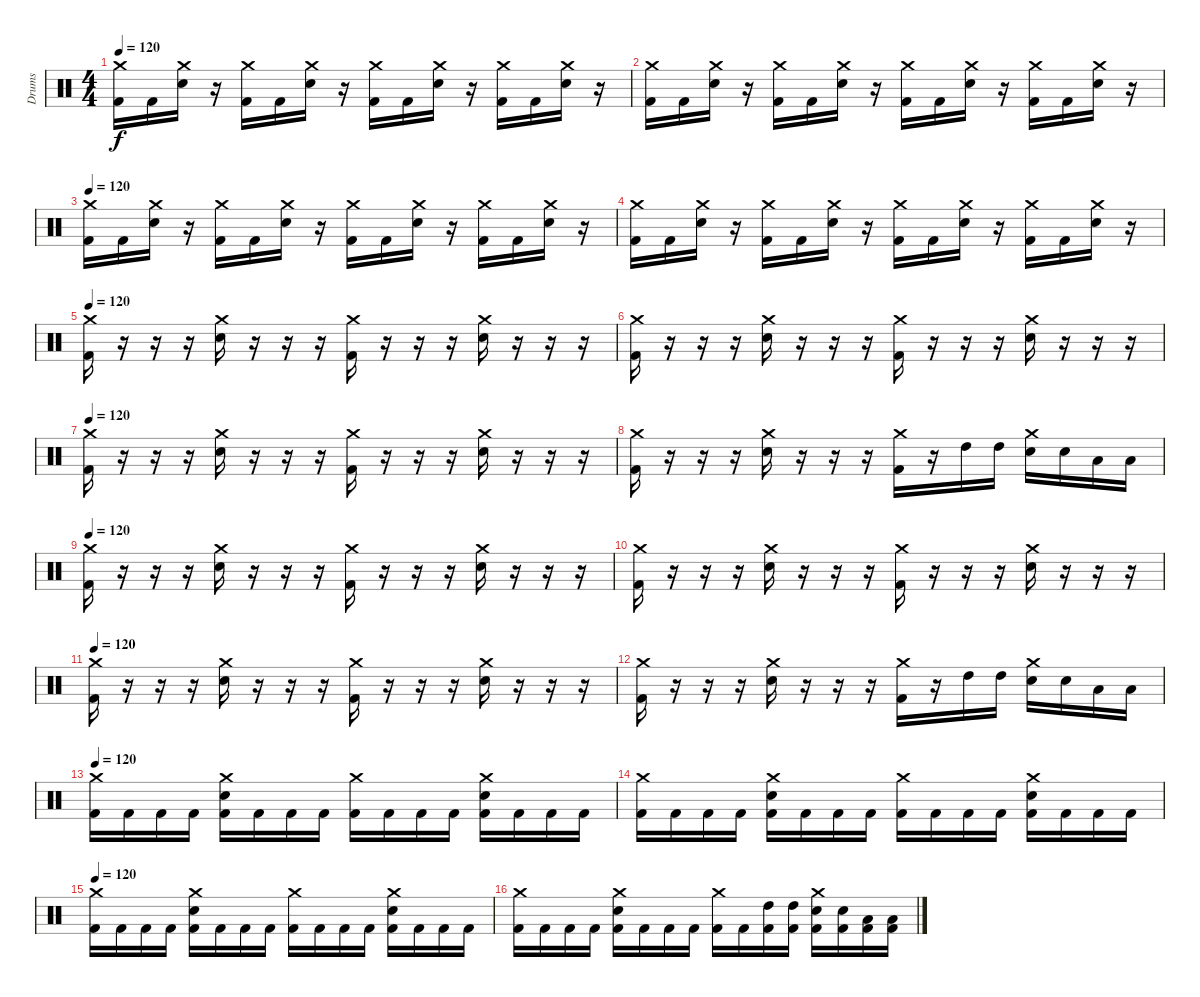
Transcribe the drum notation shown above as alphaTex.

\track ("Drums" "Drums") {instrument percussion}
\staff {score}
\articulation defaults
\ts (4 4)
\tempo 120
\clef neutral
\ks c
("Crash medium (hit)" "Kick (hit) 2").16{dy f} "Kick (hit) 2".16 ("Crash medium (hit)" "Electric Snare (hit)").16 r.16 ("Crash medium (hit)" "Kick (hit) 2").16 "Kick (hit) 2".16 ("Crash medium (hit)" "Electric Snare (hit)").16 r.16 ("Crash medium (hit)" "Kick (hit) 2").16 "Kick (hit) 2".16 ("Crash medium (hit)" "Electric Snare (hit)").16 r.16 ("Crash medium (hit)" "Kick (hit) 2").16 "Kick (hit) 2".16 ("Crash medium (hit)" "Electric Snare (hit)").16 r.16 |
("Crash medium (hit)" "Kick (hit) 2").16 "Kick (hit) 2".16 ("Crash medium (hit)" "Electric Snare (hit)").16 r.16 ("Crash medium (hit)" "Kick (hit) 2").16 "Kick (hit) 2".16 ("Crash medium (hit)" "Electric Snare (hit)").16 r.16 ("Crash medium (hit)" "Kick (hit) 2").16 "Kick (hit) 2".16 ("Crash medium (hit)" "Electric Snare (hit)").16 r.16 ("Crash medium (hit)" "Kick (hit) 2").16 "Kick (hit) 2".16 ("Crash medium (hit)" "Electric Snare (hit)").16 r.16 |
\tempo 120
("Crash medium (hit)" "Kick (hit) 2").16 "Kick (hit) 2".16 ("Crash medium (hit)" "Electric Snare (hit)").16 r.16 ("Crash medium (hit)" "Kick (hit) 2").16 "Kick (hit) 2".16 ("Crash medium (hit)" "Electric Snare (hit)").16 r.16 ("Crash medium (hit)" "Kick (hit) 2").16 "Kick (hit) 2".16 ("Crash medium (hit)" "Electric Snare (hit)").16 r.16 ("Crash medium (hit)" "Kick (hit) 2").16 "Kick (hit) 2".16 ("Crash medium (hit)" "Electric Snare (hit)").16 r.16 |
("Crash medium (hit)" "Kick (hit) 2").16 "Kick (hit) 2".16 ("Crash medium (hit)" "Electric Snare (hit)").16 r.16 ("Crash medium (hit)" "Kick (hit) 2").16 "Kick (hit) 2".16 ("Crash medium (hit)" "Electric Snare (hit)").16 r.16 ("Crash medium (hit)" "Kick (hit) 2").16 "Kick (hit) 2".16 ("Crash medium (hit)" "Electric Snare (hit)").16 r.16 ("Crash medium (hit)" "Kick (hit) 2").16 "Kick (hit) 2".16 ("Crash medium (hit)" "Electric Snare (hit)").16 r.16 |
\tempo 120
("Crash medium (hit)" "Kick (hit) 2").16 r.16 r.16 r.16 ("Crash medium (hit)" "Electric Snare (hit)").16 r.16 r.16 r.16 ("Crash medium (hit)" "Kick (hit) 2").16 r.16 r.16 r.16 ("Crash medium (hit)" "Electric Snare (hit)").16 r.16 r.16 r.16 |
("Crash medium (hit)" "Kick (hit) 2").16 r.16 r.16 r.16 ("Crash medium (hit)" "Electric Snare (hit)").16 r.16 r.16 r.16 ("Crash medium (hit)" "Kick (hit) 2").16 r.16 r.16 r.16 ("Crash medium (hit)" "Electric Snare (hit)").16 r.16 r.16 r.16 |
\tempo 120
("Crash medium (hit)" "Kick (hit) 2").16 r.16 r.16 r.16 ("Crash medium (hit)" "Electric Snare (hit)").16 r.16 r.16 r.16 ("Crash medium (hit)" "Kick (hit) 2").16 r.16 r.16 r.16 ("Crash medium (hit)" "Electric Snare (hit)").16 r.16 r.16 r.16 |
("Crash medium (hit)" "Kick (hit) 2").16 r.16 r.16 r.16 ("Crash medium (hit)" "Electric Snare (hit)").16 r.16 r.16 r.16 ("Crash medium (hit)" "Kick (hit) 2").16 r.16 "High Tom (hit)".16 "High Tom (hit)".16 ("Crash medium (hit)" "Electric Snare (hit)").16 "Electric Snare (hit)".16 "Low Tom (hit)".16 "Low Tom (hit)".16 |
\tempo 120
("Crash medium (hit)" "Kick (hit) 2").16 r.16 r.16 r.16 ("Crash medium (hit)" "Electric Snare (hit)").16 r.16 r.16 r.16 ("Crash medium (hit)" "Kick (hit) 2").16 r.16 r.16 r.16 ("Crash medium (hit)" "Electric Snare (hit)").16 r.16 r.16 r.16 |
("Crash medium (hit)" "Kick (hit) 2").16 r.16 r.16 r.16 ("Crash medium (hit)" "Electric Snare (hit)").16 r.16 r.16 r.16 ("Crash medium (hit)" "Kick (hit) 2").16 r.16 r.16 r.16 ("Crash medium (hit)" "Electric Snare (hit)").16 r.16 r.16 r.16 |
\tempo 120
("Crash medium (hit)" "Kick (hit) 2").16 r.16 r.16 r.16 ("Crash medium (hit)" "Electric Snare (hit)").16 r.16 r.16 r.16 ("Crash medium (hit)" "Kick (hit) 2").16 r.16 r.16 r.16 ("Crash medium (hit)" "Electric Snare (hit)").16 r.16 r.16 r.16 |
("Crash medium (hit)" "Kick (hit) 2").16 r.16 r.16 r.16 ("Crash medium (hit)" "Electric Snare (hit)").16 r.16 r.16 r.16 ("Crash medium (hit)" "Kick (hit) 2").16 r.16 "High Tom (hit)".16 "High Tom (hit)".16 ("Crash medium (hit)" "Electric Snare (hit)").16 "Electric Snare (hit)".16 "Low Tom (hit)".16 "Low Tom (hit)".16 |
\tempo 120
("Crash medium (hit)" "Kick (hit) 2").16 "Kick (hit) 2".16 "Kick (hit) 2".16 "Kick (hit) 2".16 ("Crash medium (hit)" "Electric Snare (hit)" "Kick (hit) 2").16 "Kick (hit) 2".16 "Kick (hit) 2".16 "Kick (hit) 2".16 ("Crash medium (hit)" "Kick (hit) 2").16 "Kick (hit) 2".16 "Kick (hit) 2".16 "Kick (hit) 2".16 ("Crash medium (hit)" "Electric Snare (hit)" "Kick (hit) 2").16 "Kick (hit) 2".16 "Kick (hit) 2".16 "Kick (hit) 2".16 |
("Crash medium (hit)" "Kick (hit) 2").16 "Kick (hit) 2".16 "Kick (hit) 2".16 "Kick (hit) 2".16 ("Crash medium (hit)" "Electric Snare (hit)" "Kick (hit) 2").16 "Kick (hit) 2".16 "Kick (hit) 2".16 "Kick (hit) 2".16 ("Crash medium (hit)" "Kick (hit) 2").16 "Kick (hit) 2".16 "Kick (hit) 2".16 "Kick (hit) 2".16 ("Crash medium (hit)" "Electric Snare (hit)" "Kick (hit) 2").16 "Kick (hit) 2".16 "Kick (hit) 2".16 "Kick (hit) 2".16 |
\tempo 120
("Crash medium (hit)" "Kick (hit) 2").16 "Kick (hit) 2".16 "Kick (hit) 2".16 "Kick (hit) 2".16 ("Crash medium (hit)" "Electric Snare (hit)" "Kick (hit) 2").16 "Kick (hit) 2".16 "Kick (hit) 2".16 "Kick (hit) 2".16 ("Crash medium (hit)" "Kick (hit) 2").16 "Kick (hit) 2".16 "Kick (hit) 2".16 "Kick (hit) 2".16 ("Crash medium (hit)" "Electric Snare (hit)" "Kick (hit) 2").16 "Kick (hit) 2".16 "Kick (hit) 2".16 "Kick (hit) 2".16 |
("Crash medium (hit)" "Kick (hit) 2").16 "Kick (hit) 2".16 "Kick (hit) 2".16 "Kick (hit) 2".16 ("Crash medium (hit)" "Electric Snare (hit)" "Kick (hit) 2").16 "Kick (hit) 2".16 "Kick (hit) 2".16 "Kick (hit) 2".16 ("Crash medium (hit)" "Kick (hit) 2").16 "Kick (hit) 2".16 ("High Tom (hit)" "Kick (hit) 2").16 ("High Tom (hit)" "Kick (hit) 2").16 ("Crash medium (hit)" "Electric Snare (hit)" "Kick (hit) 2").16 ("Electric Snare (hit)" "Kick (hit) 2").16 ("Low Tom (hit)" "Kick (hit) 2").16 ("Low Tom (hit)" "Kick (hit) 2").16
